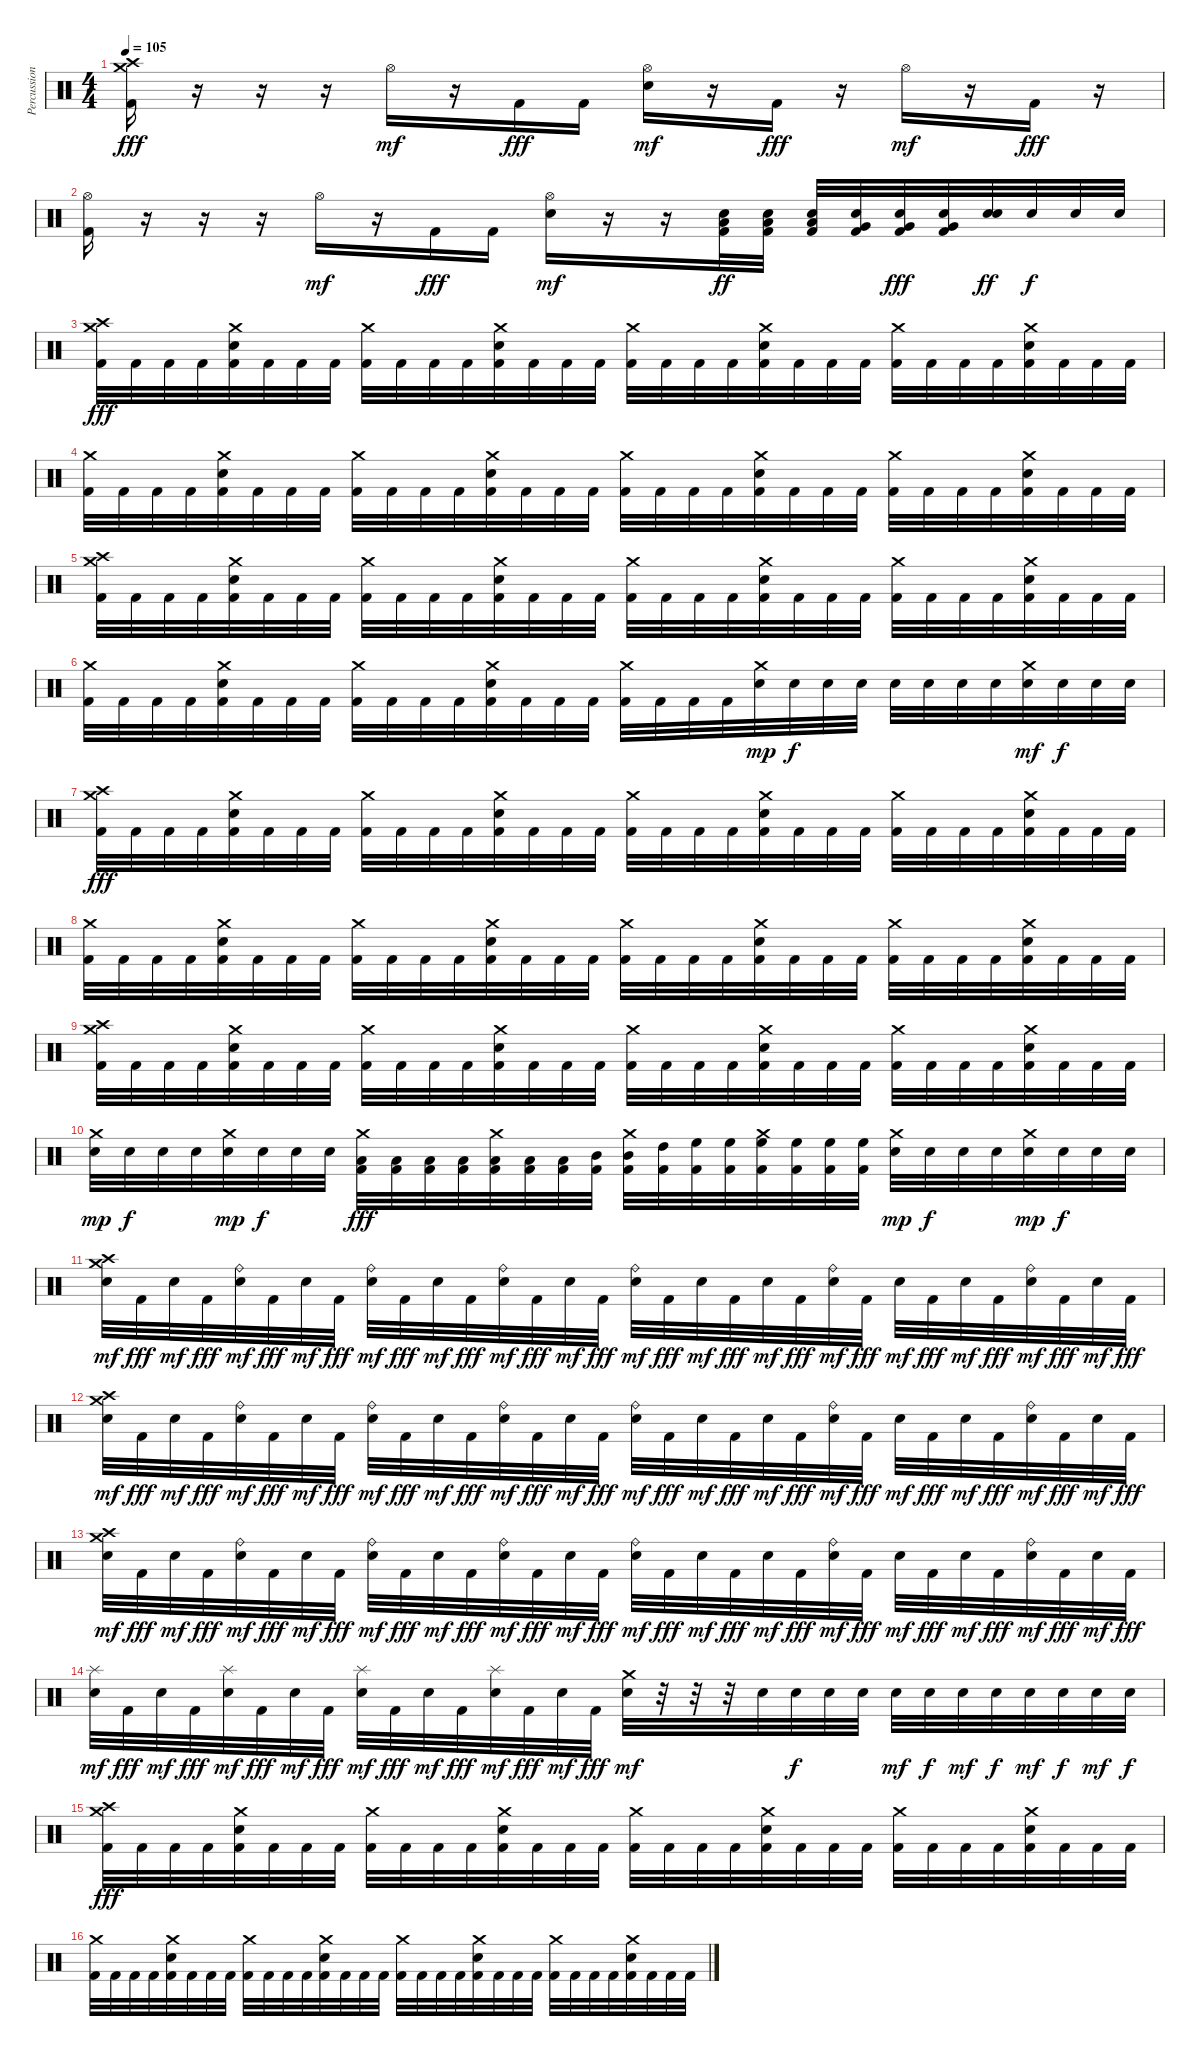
\track ("Percussions" "Percussion") {instrument percussion}
\staff {score}
\articulation defaults
\ts (4 4)
\tempo 105
\clef neutral
\ks c
("Crash medium (hit)" "Crash high (hit)" "Kick (hit) 2").16{dy fff} r.16 r.16 r.16 "Hi-Hat (open)".16{dy mf} r.16 "Kick (hit) 2".16{dy fff} "Kick (hit) 2".16 ("Hi-Hat (open)" "Electric Snare (hit)").16{dy mf} r.16 "Kick (hit) 2".16{dy fff} r.16 "Hi-Hat (open)".16{dy mf} r.16 "Kick (hit) 2".16{dy fff} r.16 |
("Hi-Hat (open)" "Kick (hit) 2").16 r.16 r.16 r.16 "Hi-Hat (open)".16{dy mf} r.16 "Kick (hit) 2".16{dy fff} "Kick (hit) 2".16 ("Hi-Hat (open)" "Electric Snare (hit)").16{dy mf} r.16 r.16 ("Snare (hit) 2" "Low Floor Tom (hit)" "Kick (hit) 2").32{dy ff} ("Snare (hit) 2" "Low Floor Tom (hit)" "Kick (hit) 2").32 ("Snare (hit) 2" "Low Floor Tom (hit)" "Kick (hit) 2").32 ("Snare (hit) 2" "Very Low Tom (hit)" "Kick (hit) 2").32 ("Snare (hit) 2" "Very Low Tom (hit)" "Kick (hit) 2").32{dy fff} ("Snare (hit) 2" "Very Low Tom (hit)" "Kick (hit) 2").32 ("Snare (hit) 2" "Electric Snare (hit)").32{dy ff} "Electric Snare (hit)".32{dy f} "Electric Snare (hit)".32 "Electric Snare (hit)".32 |
("Crash high (hit)" "Crash medium (hit)" "Kick (hit) 2").32{dy fff} "Kick (hit) 2".32 "Kick (hit) 2".32 "Kick (hit) 2".32 ("Crash medium (hit)" "Electric Snare (hit)" "Kick (hit) 2").32 "Kick (hit) 2".32 "Kick (hit) 2".32 "Kick (hit) 2".32 ("Crash medium (hit)" "Kick (hit) 2").32 "Kick (hit) 2".32 "Kick (hit) 2".32 "Kick (hit) 2".32 ("Crash medium (hit)" "Electric Snare (hit)" "Kick (hit) 2").32 "Kick (hit) 2".32 "Kick (hit) 2".32 "Kick (hit) 2".32 ("Crash medium (hit)" "Kick (hit) 2").32 "Kick (hit) 2".32 "Kick (hit) 2".32 "Kick (hit) 2".32 ("Crash medium (hit)" "Electric Snare (hit)" "Kick (hit) 2").32 "Kick (hit) 2".32 "Kick (hit) 2".32 "Kick (hit) 2".32 ("Crash medium (hit)" "Kick (hit) 2").32 "Kick (hit) 2".32 "Kick (hit) 2".32 "Kick (hit) 2".32 ("Crash medium (hit)" "Electric Snare (hit)" "Kick (hit) 2").32 "Kick (hit) 2".32 "Kick (hit) 2".32 "Kick (hit) 2".32 |
("Crash medium (hit)" "Kick (hit) 2").32 "Kick (hit) 2".32 "Kick (hit) 2".32 "Kick (hit) 2".32 ("Crash medium (hit)" "Electric Snare (hit)" "Kick (hit) 2").32 "Kick (hit) 2".32 "Kick (hit) 2".32 "Kick (hit) 2".32 ("Crash medium (hit)" "Kick (hit) 2").32 "Kick (hit) 2".32 "Kick (hit) 2".32 "Kick (hit) 2".32 ("Crash medium (hit)" "Electric Snare (hit)" "Kick (hit) 2").32 "Kick (hit) 2".32 "Kick (hit) 2".32 "Kick (hit) 2".32 ("Crash medium (hit)" "Kick (hit) 2").32 "Kick (hit) 2".32 "Kick (hit) 2".32 "Kick (hit) 2".32 ("Crash medium (hit)" "Electric Snare (hit)" "Kick (hit) 2").32 "Kick (hit) 2".32 "Kick (hit) 2".32 "Kick (hit) 2".32 ("Crash medium (hit)" "Kick (hit) 2").32 "Kick (hit) 2".32 "Kick (hit) 2".32 "Kick (hit) 2".32 ("Crash medium (hit)" "Electric Snare (hit)" "Kick (hit) 2").32 "Kick (hit) 2".32 "Kick (hit) 2".32 "Kick (hit) 2".32 |
("Crash high (hit)" "Crash medium (hit)" "Kick (hit) 2").32 "Kick (hit) 2".32 "Kick (hit) 2".32 "Kick (hit) 2".32 ("Crash medium (hit)" "Electric Snare (hit)" "Kick (hit) 2").32 "Kick (hit) 2".32 "Kick (hit) 2".32 "Kick (hit) 2".32 ("Crash medium (hit)" "Kick (hit) 2").32 "Kick (hit) 2".32 "Kick (hit) 2".32 "Kick (hit) 2".32 ("Crash medium (hit)" "Electric Snare (hit)" "Kick (hit) 2").32 "Kick (hit) 2".32 "Kick (hit) 2".32 "Kick (hit) 2".32 ("Crash medium (hit)" "Kick (hit) 2").32 "Kick (hit) 2".32 "Kick (hit) 2".32 "Kick (hit) 2".32 ("Crash medium (hit)" "Electric Snare (hit)" "Kick (hit) 2").32 "Kick (hit) 2".32 "Kick (hit) 2".32 "Kick (hit) 2".32 ("Crash medium (hit)" "Kick (hit) 2").32 "Kick (hit) 2".32 "Kick (hit) 2".32 "Kick (hit) 2".32 ("Crash medium (hit)" "Electric Snare (hit)" "Kick (hit) 2").32 "Kick (hit) 2".32 "Kick (hit) 2".32 "Kick (hit) 2".32 |
("Crash medium (hit)" "Kick (hit) 2").32 "Kick (hit) 2".32 "Kick (hit) 2".32 "Kick (hit) 2".32 ("Crash medium (hit)" "Electric Snare (hit)" "Kick (hit) 2").32 "Kick (hit) 2".32 "Kick (hit) 2".32 "Kick (hit) 2".32 ("Crash medium (hit)" "Kick (hit) 2").32 "Kick (hit) 2".32 "Kick (hit) 2".32 "Kick (hit) 2".32 ("Crash medium (hit)" "Electric Snare (hit)" "Kick (hit) 2").32 "Kick (hit) 2".32 "Kick (hit) 2".32 "Kick (hit) 2".32 ("Crash medium (hit)" "Kick (hit) 2").32 "Kick (hit) 2".32 "Kick (hit) 2".32 "Kick (hit) 2".32 ("Crash medium (hit)" "Electric Snare (hit)").32{dy mp} "Electric Snare (hit)".32{dy f} "Electric Snare (hit)".32 "Electric Snare (hit)".32 "Electric Snare (hit)".32 "Electric Snare (hit)".32 "Electric Snare (hit)".32 "Electric Snare (hit)".32 ("Crash medium (hit)" "Electric Snare (hit)").32{dy mf} "Electric Snare (hit)".32{dy f} "Electric Snare (hit)".32 "Electric Snare (hit)".32 |
("Crash high (hit)" "Crash medium (hit)" "Kick (hit) 2").32{dy fff} "Kick (hit) 2".32 "Kick (hit) 2".32 "Kick (hit) 2".32 ("Crash medium (hit)" "Electric Snare (hit)" "Kick (hit) 2").32 "Kick (hit) 2".32 "Kick (hit) 2".32 "Kick (hit) 2".32 ("Crash medium (hit)" "Kick (hit) 2").32 "Kick (hit) 2".32 "Kick (hit) 2".32 "Kick (hit) 2".32 ("Crash medium (hit)" "Electric Snare (hit)" "Kick (hit) 2").32 "Kick (hit) 2".32 "Kick (hit) 2".32 "Kick (hit) 2".32 ("Crash medium (hit)" "Kick (hit) 2").32 "Kick (hit) 2".32 "Kick (hit) 2".32 "Kick (hit) 2".32 ("Crash medium (hit)" "Electric Snare (hit)" "Kick (hit) 2").32 "Kick (hit) 2".32 "Kick (hit) 2".32 "Kick (hit) 2".32 ("Crash medium (hit)" "Kick (hit) 2").32 "Kick (hit) 2".32 "Kick (hit) 2".32 "Kick (hit) 2".32 ("Crash medium (hit)" "Electric Snare (hit)" "Kick (hit) 2").32 "Kick (hit) 2".32 "Kick (hit) 2".32 "Kick (hit) 2".32 |
("Crash medium (hit)" "Kick (hit) 2").32 "Kick (hit) 2".32 "Kick (hit) 2".32 "Kick (hit) 2".32 ("Crash medium (hit)" "Electric Snare (hit)" "Kick (hit) 2").32 "Kick (hit) 2".32 "Kick (hit) 2".32 "Kick (hit) 2".32 ("Crash medium (hit)" "Kick (hit) 2").32 "Kick (hit) 2".32 "Kick (hit) 2".32 "Kick (hit) 2".32 ("Crash medium (hit)" "Electric Snare (hit)" "Kick (hit) 2").32 "Kick (hit) 2".32 "Kick (hit) 2".32 "Kick (hit) 2".32 ("Crash medium (hit)" "Kick (hit) 2").32 "Kick (hit) 2".32 "Kick (hit) 2".32 "Kick (hit) 2".32 ("Crash medium (hit)" "Electric Snare (hit)" "Kick (hit) 2").32 "Kick (hit) 2".32 "Kick (hit) 2".32 "Kick (hit) 2".32 ("Crash medium (hit)" "Kick (hit) 2").32 "Kick (hit) 2".32 "Kick (hit) 2".32 "Kick (hit) 2".32 ("Crash medium (hit)" "Electric Snare (hit)" "Kick (hit) 2").32 "Kick (hit) 2".32 "Kick (hit) 2".32 "Kick (hit) 2".32 |
("Crash high (hit)" "Crash medium (hit)" "Kick (hit) 2").32 "Kick (hit) 2".32 "Kick (hit) 2".32 "Kick (hit) 2".32 ("Crash medium (hit)" "Electric Snare (hit)" "Kick (hit) 2").32 "Kick (hit) 2".32 "Kick (hit) 2".32 "Kick (hit) 2".32 ("Crash medium (hit)" "Kick (hit) 2").32 "Kick (hit) 2".32 "Kick (hit) 2".32 "Kick (hit) 2".32 ("Crash medium (hit)" "Electric Snare (hit)" "Kick (hit) 2").32 "Kick (hit) 2".32 "Kick (hit) 2".32 "Kick (hit) 2".32 ("Crash medium (hit)" "Kick (hit) 2").32 "Kick (hit) 2".32 "Kick (hit) 2".32 "Kick (hit) 2".32 ("Crash medium (hit)" "Electric Snare (hit)" "Kick (hit) 2").32 "Kick (hit) 2".32 "Kick (hit) 2".32 "Kick (hit) 2".32 ("Crash medium (hit)" "Kick (hit) 2").32 "Kick (hit) 2".32 "Kick (hit) 2".32 "Kick (hit) 2".32 ("Crash medium (hit)" "Electric Snare (hit)" "Kick (hit) 2").32 "Kick (hit) 2".32 "Kick (hit) 2".32 "Kick (hit) 2".32 |
("Crash medium (hit)" "Electric Snare (hit)").32{dy mp} "Electric Snare (hit)".32{dy f} "Electric Snare (hit)".32 "Electric Snare (hit)".32 ("Crash medium (hit)" "Electric Snare (hit)").32{dy mp} "Electric Snare (hit)".32{dy f} "Electric Snare (hit)".32 "Electric Snare (hit)".32 ("Crash medium (hit)" "Low Floor Tom (hit)" "Kick (hit) 2").32{dy fff} ("Low Floor Tom (hit)" "Kick (hit) 2").32 ("Low Floor Tom (hit)" "Kick (hit) 2").32 ("Low Floor Tom (hit)" "Kick (hit) 2").32 ("Crash medium (hit)" "Low Tom (hit)" "Kick (hit) 2").32 ("Low Tom (hit)" "Kick (hit) 2").32 ("Low Tom (hit)" "Kick (hit) 2").32 ("Mid Tom (hit)" "Kick (hit) 2").32 ("Crash medium (hit)" "Mid Tom (hit)" "Kick (hit) 2").32 ("High Tom (hit)" "Kick (hit) 2").32 ("High Floor Tom (hit)" "Kick (hit) 2").32 ("High Floor Tom (hit)" "Kick (hit) 2").32 ("Crash medium (hit)" "High Floor Tom (hit)" "Kick (hit) 2").32 ("High Floor Tom (hit)" "Kick (hit) 2").32 ("High Floor Tom (hit)" "Kick (hit) 2").32 ("High Floor Tom (hit)" "Kick (hit) 2").32 ("Crash medium (hit)" "Electric Snare (hit)").32{dy mp} "Electric Snare (hit)".32{dy f} "Electric Snare (hit)".32 "Electric Snare (hit)".32 ("Crash medium (hit)" "Electric Snare (hit)").32{dy mp} "Electric Snare (hit)".32{dy f} "Electric Snare (hit)".32 "Electric Snare (hit)".32 |
("Crash high (hit)" "Crash medium (hit)" "Electric Snare (hit)").32{dy mf} "Kick (hit) 2".32{dy fff} "Electric Snare (hit)".32{dy mf} "Kick (hit) 2".32{dy fff} ("Ride (bell)" "Electric Snare (hit)").32{dy mf} "Kick (hit) 2".32{dy fff} "Electric Snare (hit)".32{dy mf} "Kick (hit) 2".32{dy fff} ("Ride (bell)" "Electric Snare (hit)").32{dy mf} "Kick (hit) 2".32{dy fff} "Electric Snare (hit)".32{dy mf} "Kick (hit) 2".32{dy fff} ("Ride (bell)" "Electric Snare (hit)").32{dy mf} "Kick (hit) 2".32{dy fff} "Electric Snare (hit)".32{dy mf} "Kick (hit) 2".32{dy fff} ("Ride (bell)" "Electric Snare (hit)").32{dy mf} "Kick (hit) 2".32{dy fff} "Electric Snare (hit)".32{dy mf} "Kick (hit) 2".32{dy fff} "Electric Snare (hit)".32{dy mf} "Kick (hit) 2".32{dy fff} ("Ride (bell)" "Electric Snare (hit)").32{dy mf} "Kick (hit) 2".32{dy fff} "Electric Snare (hit)".32{dy mf} "Kick (hit) 2".32{dy fff} "Electric Snare (hit)".32{dy mf} "Kick (hit) 2".32{dy fff} ("Ride (bell)" "Electric Snare (hit)").32{dy mf} "Kick (hit) 2".32{dy fff} "Electric Snare (hit)".32{dy mf} "Kick (hit) 2".32{dy fff} |
("Crash high (hit)" "Crash medium (hit)" "Electric Snare (hit)").32{dy mf} "Kick (hit) 2".32{dy fff} "Electric Snare (hit)".32{dy mf} "Kick (hit) 2".32{dy fff} ("Ride (bell)" "Electric Snare (hit)").32{dy mf} "Kick (hit) 2".32{dy fff} "Electric Snare (hit)".32{dy mf} "Kick (hit) 2".32{dy fff} ("Ride (bell)" "Electric Snare (hit)").32{dy mf} "Kick (hit) 2".32{dy fff} "Electric Snare (hit)".32{dy mf} "Kick (hit) 2".32{dy fff} ("Ride (bell)" "Electric Snare (hit)").32{dy mf} "Kick (hit) 2".32{dy fff} "Electric Snare (hit)".32{dy mf} "Kick (hit) 2".32{dy fff} ("Ride (bell)" "Electric Snare (hit)").32{dy mf} "Kick (hit) 2".32{dy fff} "Electric Snare (hit)".32{dy mf} "Kick (hit) 2".32{dy fff} "Electric Snare (hit)".32{dy mf} "Kick (hit) 2".32{dy fff} ("Ride (bell)" "Electric Snare (hit)").32{dy mf} "Kick (hit) 2".32{dy fff} "Electric Snare (hit)".32{dy mf} "Kick (hit) 2".32{dy fff} "Electric Snare (hit)".32{dy mf} "Kick (hit) 2".32{dy fff} ("Ride (bell)" "Electric Snare (hit)").32{dy mf} "Kick (hit) 2".32{dy fff} "Electric Snare (hit)".32{dy mf} "Kick (hit) 2".32{dy fff} |
("Crash high (hit)" "Crash medium (hit)" "Electric Snare (hit)").32{dy mf} "Kick (hit) 2".32{dy fff} "Electric Snare (hit)".32{dy mf} "Kick (hit) 2".32{dy fff} ("Ride (bell)" "Electric Snare (hit)").32{dy mf} "Kick (hit) 2".32{dy fff} "Electric Snare (hit)".32{dy mf} "Kick (hit) 2".32{dy fff} ("Ride (bell)" "Electric Snare (hit)").32{dy mf} "Kick (hit) 2".32{dy fff} "Electric Snare (hit)".32{dy mf} "Kick (hit) 2".32{dy fff} ("Ride (bell)" "Electric Snare (hit)").32{dy mf} "Kick (hit) 2".32{dy fff} "Electric Snare (hit)".32{dy mf} "Kick (hit) 2".32{dy fff} ("Ride (bell)" "Electric Snare (hit)").32{dy mf} "Kick (hit) 2".32{dy fff} "Electric Snare (hit)".32{dy mf} "Kick (hit) 2".32{dy fff} "Electric Snare (hit)".32{dy mf} "Kick (hit) 2".32{dy fff} ("Ride (bell)" "Electric Snare (hit)").32{dy mf} "Kick (hit) 2".32{dy fff} "Electric Snare (hit)".32{dy mf} "Kick (hit) 2".32{dy fff} "Electric Snare (hit)".32{dy mf} "Kick (hit) 2".32{dy fff} ("Ride (bell)" "Electric Snare (hit)").32{dy mf} "Kick (hit) 2".32{dy fff} "Electric Snare (hit)".32{dy mf} "Kick (hit) 2".32{dy fff} |
("Splash (hit)" "Electric Snare (hit)").32{dy mf} "Kick (hit) 2".32{dy fff} "Electric Snare (hit)".32{dy mf} "Kick (hit) 2".32{dy fff} ("Splash (hit)" "Electric Snare (hit)").32{dy mf} "Kick (hit) 2".32{dy fff} "Electric Snare (hit)".32{dy mf} "Kick (hit) 2".32{dy fff} ("Splash (hit)" "Electric Snare (hit)").32{dy mf} "Kick (hit) 2".32{dy fff} "Electric Snare (hit)".32{dy mf} "Kick (hit) 2".32{dy fff} ("Splash (hit)" "Electric Snare (hit)").32{dy mf} "Kick (hit) 2".32{dy fff} "Electric Snare (hit)".32{dy mf} "Kick (hit) 2".32{dy fff} ("Crash medium (hit)" "Electric Snare (hit)").32{dy mf} r.32 r.32 r.32 "Electric Snare (hit)".32 "Electric Snare (hit)".32{dy f} "Electric Snare (hit)".32 "Electric Snare (hit)".32 "Electric Snare (hit)".32{dy mf} "Electric Snare (hit)".32{dy f} "Electric Snare (hit)".32{dy mf} "Electric Snare (hit)".32{dy f} "Electric Snare (hit)".32{dy mf} "Electric Snare (hit)".32{dy f} "Electric Snare (hit)".32{dy mf} "Electric Snare (hit)".32{dy f} |
("Crash high (hit)" "Crash medium (hit)" "Kick (hit) 2").32{dy fff} "Kick (hit) 2".32 "Kick (hit) 2".32 "Kick (hit) 2".32 ("Crash medium (hit)" "Electric Snare (hit)" "Kick (hit) 2").32 "Kick (hit) 2".32 "Kick (hit) 2".32 "Kick (hit) 2".32 ("Crash medium (hit)" "Kick (hit) 2").32 "Kick (hit) 2".32 "Kick (hit) 2".32 "Kick (hit) 2".32 ("Crash medium (hit)" "Electric Snare (hit)" "Kick (hit) 2").32 "Kick (hit) 2".32 "Kick (hit) 2".32 "Kick (hit) 2".32 ("Crash medium (hit)" "Kick (hit) 2").32 "Kick (hit) 2".32 "Kick (hit) 2".32 "Kick (hit) 2".32 ("Crash medium (hit)" "Electric Snare (hit)" "Kick (hit) 2").32 "Kick (hit) 2".32 "Kick (hit) 2".32 "Kick (hit) 2".32 ("Crash medium (hit)" "Kick (hit) 2").32 "Kick (hit) 2".32 "Kick (hit) 2".32 "Kick (hit) 2".32 ("Crash medium (hit)" "Electric Snare (hit)" "Kick (hit) 2").32 "Kick (hit) 2".32 "Kick (hit) 2".32 "Kick (hit) 2".32 |
("Crash medium (hit)" "Kick (hit) 2").32 "Kick (hit) 2".32 "Kick (hit) 2".32 "Kick (hit) 2".32 ("Crash medium (hit)" "Electric Snare (hit)" "Kick (hit) 2").32 "Kick (hit) 2".32 "Kick (hit) 2".32 "Kick (hit) 2".32 ("Crash medium (hit)" "Kick (hit) 2").32 "Kick (hit) 2".32 "Kick (hit) 2".32 "Kick (hit) 2".32 ("Crash medium (hit)" "Electric Snare (hit)" "Kick (hit) 2").32 "Kick (hit) 2".32 "Kick (hit) 2".32 "Kick (hit) 2".32 ("Crash medium (hit)" "Kick (hit) 2").32 "Kick (hit) 2".32 "Kick (hit) 2".32 "Kick (hit) 2".32 ("Crash medium (hit)" "Electric Snare (hit)" "Kick (hit) 2").32 "Kick (hit) 2".32 "Kick (hit) 2".32 "Kick (hit) 2".32 ("Crash medium (hit)" "Kick (hit) 2").32 "Kick (hit) 2".32 "Kick (hit) 2".32 "Kick (hit) 2".32 ("Crash medium (hit)" "Electric Snare (hit)" "Kick (hit) 2").32 "Kick (hit) 2".32 "Kick (hit) 2".32 "Kick (hit) 2".32
